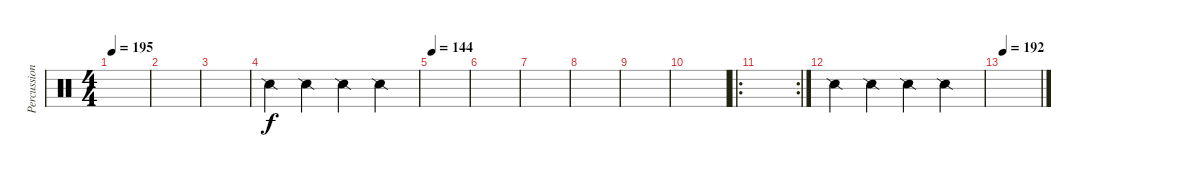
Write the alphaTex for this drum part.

\track ("Percussion" "Percussion") {instrument percussion}
\staff {score}
\articulation defaults
\ts (4 4)
\tempo 195
\clef neutral
\ks c
|
|
|
"Snare (side stick) 2".4 "Snare (side stick) 2".4 "Snare (side stick) 2".4 "Snare (side stick) 2".4 |
\tempo 144
|
|
|
|
|
|
\ro
\rc 2
|
"Snare (side stick) 2".4 "Snare (side stick) 2".4 "Snare (side stick) 2".4 "Snare (side stick) 2".4 |
\tempo 192
